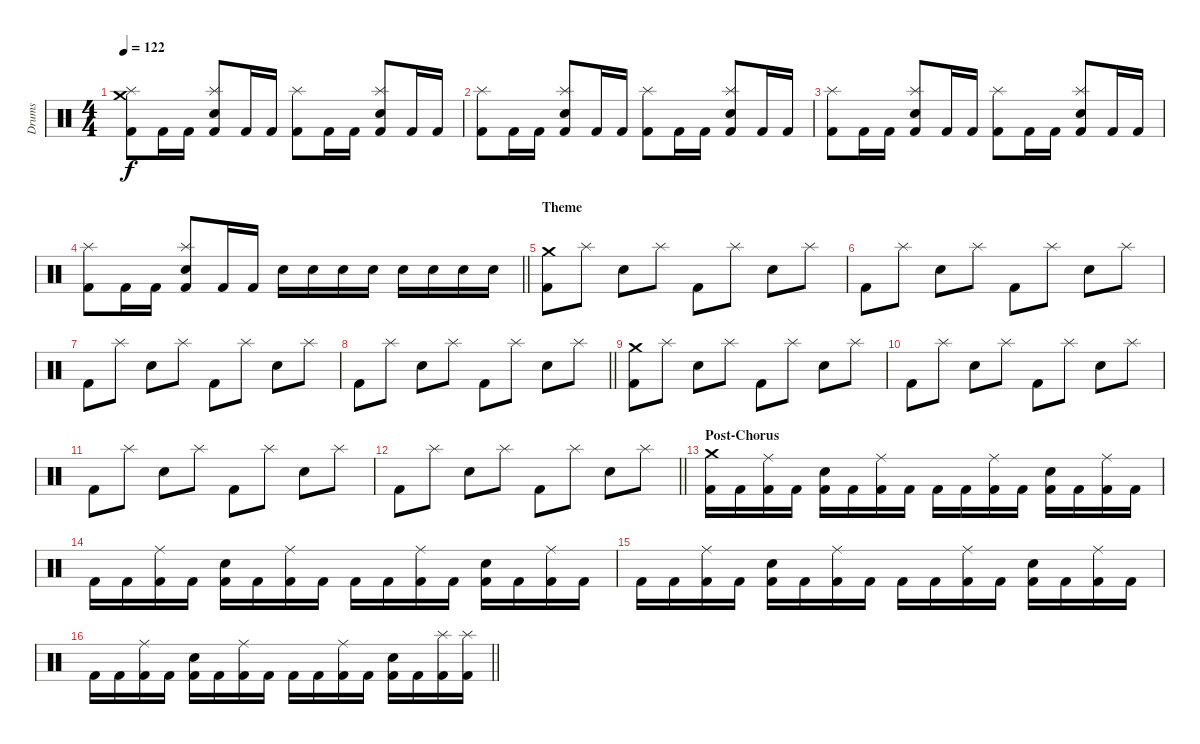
\track ("Drums" "Drums") {instrument percussion}
\staff {score}
\articulation defaults
\ts (4 4)
\section ("" "")
\tempo 122
\clef neutral
\ks c
("Kick (hit) 2" "Splash (hit)" "Crash medium (hit)").8{dy f} "Kick (hit) 2".16 "Kick (hit) 2".16 ("Kick (hit) 2" "Snare (hit) 2" "Splash (hit)").8 "Kick (hit) 2".16 "Kick (hit) 2".16 ("Kick (hit) 2" "Splash (hit)").8 "Kick (hit) 2".16 "Kick (hit) 2".16 ("Kick (hit) 2" "Snare (hit) 2" "Splash (hit)").8 "Kick (hit) 2".16 "Kick (hit) 2".16 |
("Kick (hit) 2" "Splash (hit)").8 "Kick (hit) 2".16 "Kick (hit) 2".16 ("Kick (hit) 2" "Snare (hit) 2" "Splash (hit)").8 "Kick (hit) 2".16 "Kick (hit) 2".16 ("Kick (hit) 2" "Splash (hit)").8 "Kick (hit) 2".16 "Kick (hit) 2".16 ("Kick (hit) 2" "Snare (hit) 2" "Splash (hit)").8 "Kick (hit) 2".16 "Kick (hit) 2".16 |
("Kick (hit) 2" "Splash (hit)").8 "Kick (hit) 2".16 "Kick (hit) 2".16 ("Kick (hit) 2" "Snare (hit) 2" "Splash (hit)").8 "Kick (hit) 2".16 "Kick (hit) 2".16 ("Kick (hit) 2" "Splash (hit)").8 "Kick (hit) 2".16 "Kick (hit) 2".16 ("Kick (hit) 2" "Snare (hit) 2" "Splash (hit)").8 "Kick (hit) 2".16 "Kick (hit) 2".16 |
\barLineRight lightlight
("Kick (hit) 2" "Splash (hit)").8 "Kick (hit) 2".16 "Kick (hit) 2".16 ("Kick (hit) 2" "Snare (hit) 2" "Splash (hit)").8 "Kick (hit) 2".16 "Kick (hit) 2".16 "Snare (hit) 2".16 "Snare (hit) 2".16 "Snare (hit) 2".16 "Snare (hit) 2".16 "Snare (hit) 2".16 "Snare (hit) 2".16 "Snare (hit) 2".16 "Snare (hit) 2".16 |
\section ("" "Theme")
("Kick (hit) 2" "Crash medium (hit)").8 "Splash (hit)".8 "Snare (hit) 2".8 "Splash (hit)".8 "Kick (hit) 2".8 "Splash (hit)".8 "Snare (hit) 2".8 "Splash (hit)".8 |
"Kick (hit) 2".8 "Splash (hit)".8 "Snare (hit) 2".8 "Splash (hit)".8 "Kick (hit) 2".8 "Splash (hit)".8 "Snare (hit) 2".8 "Splash (hit)".8 |
"Kick (hit) 2".8 "Splash (hit)".8 "Snare (hit) 2".8 "Splash (hit)".8 "Kick (hit) 2".8 "Splash (hit)".8 "Snare (hit) 2".8 "Splash (hit)".8 |
\barLineRight lightlight "Kick (hit) 2".8 "Splash (hit)".8 "Snare (hit) 2".8 "Splash (hit)".8 "Kick (hit) 2".8 "Splash (hit)".8 "Snare (hit) 2".8 "Splash (hit)".8
|
\section ("" "")
("Kick (hit) 2" "Crash medium (hit)").8 "Splash (hit)".8 "Snare (hit) 2".8 "Splash (hit)".8 "Kick (hit) 2".8 "Splash (hit)".8 "Snare (hit) 2".8 "Splash (hit)".8 |
"Kick (hit) 2".8 "Splash (hit)".8 "Snare (hit) 2".8 "Splash (hit)".8 "Kick (hit) 2".8 "Splash (hit)".8 "Snare (hit) 2".8 "Splash (hit)".8 |
"Kick (hit) 2".8 "Splash (hit)".8 "Snare (hit) 2".8 "Splash (hit)".8 "Kick (hit) 2".8 "Splash (hit)".8 "Snare (hit) 2".8 "Splash (hit)".8 |
\barLineRight lightlight "Kick (hit) 2".8 "Splash (hit)".8 "Snare (hit) 2".8 "Splash (hit)".8 "Kick (hit) 2".8 "Splash (hit)".8 "Snare (hit) 2".8 "Splash (hit)".8
|
\section ("" "Post-Chorus")
("Kick (hit) 2" "Crash medium (hit)").16 "Kick (hit) 2".16 ("Kick (hit) 2" "Ride (middle)").16 "Kick (hit) 2".16 ("Kick (hit) 2" "Snare (hit) 2").16 "Kick (hit) 2".16 ("Kick (hit) 2" "Ride (middle)").16 "Kick (hit) 2".16 "Kick (hit) 2".16 "Kick (hit) 2".16 ("Kick (hit) 2" "Ride (middle)").16 "Kick (hit) 2".16 ("Kick (hit) 2" "Snare (hit) 2").16 "Kick (hit) 2".16 ("Kick (hit) 2" "Ride (middle)").16 "Kick (hit) 2".16 |
"Kick (hit) 2".16 "Kick (hit) 2".16 ("Kick (hit) 2" "Ride (middle)").16 "Kick (hit) 2".16 ("Kick (hit) 2" "Snare (hit) 2").16 "Kick (hit) 2".16 ("Kick (hit) 2" "Ride (middle)").16 "Kick (hit) 2".16 "Kick (hit) 2".16 "Kick (hit) 2".16 ("Kick (hit) 2" "Ride (middle)").16 "Kick (hit) 2".16 ("Kick (hit) 2" "Snare (hit) 2").16 "Kick (hit) 2".16 ("Kick (hit) 2" "Ride (middle)").16 "Kick (hit) 2".16 |
"Kick (hit) 2".16 "Kick (hit) 2".16 ("Kick (hit) 2" "Ride (middle)").16 "Kick (hit) 2".16 ("Kick (hit) 2" "Snare (hit) 2").16 "Kick (hit) 2".16 ("Kick (hit) 2" "Ride (middle)").16 "Kick (hit) 2".16 "Kick (hit) 2".16 "Kick (hit) 2".16 ("Kick (hit) 2" "Ride (middle)").16 "Kick (hit) 2".16 ("Kick (hit) 2" "Snare (hit) 2").16 "Kick (hit) 2".16 ("Kick (hit) 2" "Ride (middle)").16 "Kick (hit) 2".16 |
\barLineRight lightlight "Kick (hit) 2".16 "Kick (hit) 2".16
("Kick (hit) 2" "Ride (middle)").16 "Kick (hit) 2".16 ("Kick (hit) 2" "Snare (hit) 2").16 "Kick (hit) 2".16 ("Kick (hit) 2" "Ride (middle)").16 "Kick (hit) 2".16 "Kick (hit) 2".16 "Kick (hit) 2".16 ("Kick (hit) 2" "Ride (middle)").16 "Kick (hit) 2".16 ("Kick (hit) 2" "Snare (hit) 2").16 "Kick (hit) 2".16 ("Kick (hit) 2" "Splash (hit)").16 ("Kick (hit) 2" "Splash (hit)").16
